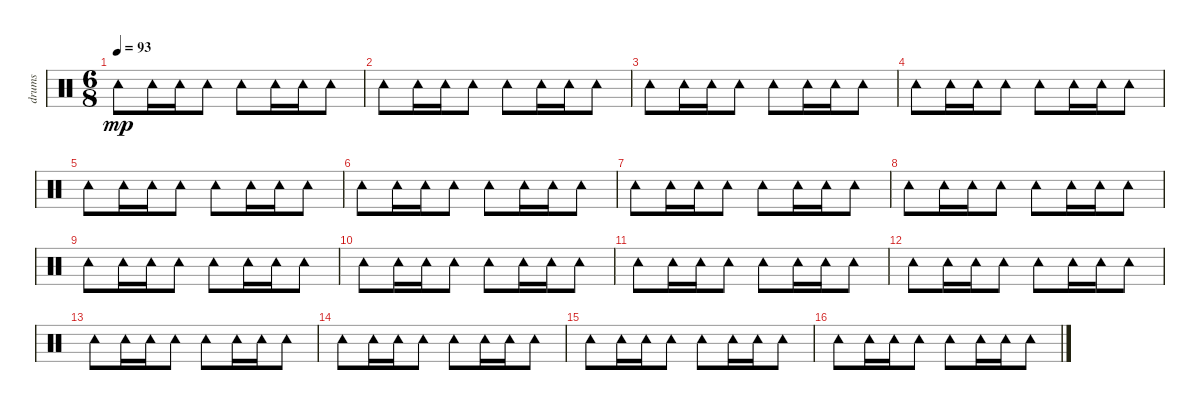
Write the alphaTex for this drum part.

\track ("drums" "drums") {instrument percussion}
\staff {score}
\articulation defaults
\ts (6 8)
\tempo 93
\clef neutral
\ks c "Tambourine (hit)".8{dy mp} "Tambourine (hit)".16 "Tambourine (hit)".16 "Tambourine (hit)".8 "Tambourine (hit)".8 "Tambourine (hit)".16 "Tambourine (hit)".16 "Tambourine (hit)".8
|
"Tambourine (hit)".8 "Tambourine (hit)".16 "Tambourine (hit)".16 "Tambourine (hit)".8 "Tambourine (hit)".8 "Tambourine (hit)".16 "Tambourine (hit)".16 "Tambourine (hit)".8 |
"Tambourine (hit)".8 "Tambourine (hit)".16 "Tambourine (hit)".16 "Tambourine (hit)".8 "Tambourine (hit)".8 "Tambourine (hit)".16 "Tambourine (hit)".16 "Tambourine (hit)".8 |
"Tambourine (hit)".8 "Tambourine (hit)".16 "Tambourine (hit)".16 "Tambourine (hit)".8 "Tambourine (hit)".8 "Tambourine (hit)".16 "Tambourine (hit)".16 "Tambourine (hit)".8 |
"Tambourine (hit)".8 "Tambourine (hit)".16 "Tambourine (hit)".16 "Tambourine (hit)".8 "Tambourine (hit)".8 "Tambourine (hit)".16 "Tambourine (hit)".16 "Tambourine (hit)".8 |
"Tambourine (hit)".8 "Tambourine (hit)".16 "Tambourine (hit)".16 "Tambourine (hit)".8 "Tambourine (hit)".8 "Tambourine (hit)".16 "Tambourine (hit)".16 "Tambourine (hit)".8 |
"Tambourine (hit)".8 "Tambourine (hit)".16 "Tambourine (hit)".16 "Tambourine (hit)".8 "Tambourine (hit)".8 "Tambourine (hit)".16 "Tambourine (hit)".16 "Tambourine (hit)".8 |
"Tambourine (hit)".8 "Tambourine (hit)".16 "Tambourine (hit)".16 "Tambourine (hit)".8 "Tambourine (hit)".8 "Tambourine (hit)".16 "Tambourine (hit)".16 "Tambourine (hit)".8 |
"Tambourine (hit)".8 "Tambourine (hit)".16 "Tambourine (hit)".16 "Tambourine (hit)".8 "Tambourine (hit)".8 "Tambourine (hit)".16 "Tambourine (hit)".16 "Tambourine (hit)".8 |
"Tambourine (hit)".8 "Tambourine (hit)".16 "Tambourine (hit)".16 "Tambourine (hit)".8 "Tambourine (hit)".8 "Tambourine (hit)".16 "Tambourine (hit)".16 "Tambourine (hit)".8 |
"Tambourine (hit)".8 "Tambourine (hit)".16 "Tambourine (hit)".16 "Tambourine (hit)".8 "Tambourine (hit)".8 "Tambourine (hit)".16 "Tambourine (hit)".16 "Tambourine (hit)".8 |
"Tambourine (hit)".8 "Tambourine (hit)".16 "Tambourine (hit)".16 "Tambourine (hit)".8 "Tambourine (hit)".8 "Tambourine (hit)".16 "Tambourine (hit)".16 "Tambourine (hit)".8 |
"Tambourine (hit)".8 "Tambourine (hit)".16 "Tambourine (hit)".16 "Tambourine (hit)".8 "Tambourine (hit)".8 "Tambourine (hit)".16 "Tambourine (hit)".16 "Tambourine (hit)".8 |
"Tambourine (hit)".8 "Tambourine (hit)".16 "Tambourine (hit)".16 "Tambourine (hit)".8 "Tambourine (hit)".8 "Tambourine (hit)".16 "Tambourine (hit)".16 "Tambourine (hit)".8 |
"Tambourine (hit)".8 "Tambourine (hit)".16 "Tambourine (hit)".16 "Tambourine (hit)".8 "Tambourine (hit)".8 "Tambourine (hit)".16 "Tambourine (hit)".16 "Tambourine (hit)".8 |
"Tambourine (hit)".8 "Tambourine (hit)".16 "Tambourine (hit)".16 "Tambourine (hit)".8 "Tambourine (hit)".8 "Tambourine (hit)".16 "Tambourine (hit)".16 "Tambourine (hit)".8
